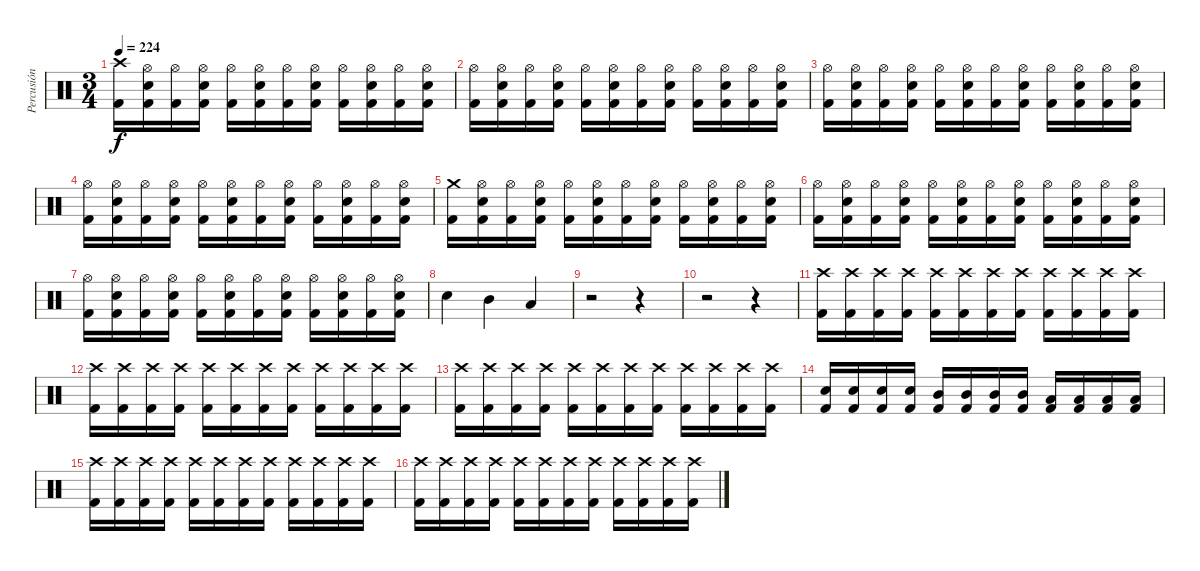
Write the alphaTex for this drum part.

\track ("Percusión" "Percusión") {instrument percussion}
\staff {score}
\articulation defaults
\ts (3 4)
\tempo 224
\clef neutral
\ks c
("Crash high (hit)" "Kick (hit) 2").16{dy f} ("Hi-Hat (open)" "Electric Snare (hit)" "Kick (hit) 2").16 ("Hi-Hat (open)" "Kick (hit) 2").16 ("Hi-Hat (open)" "Electric Snare (hit)" "Kick (hit) 2").16 ("Hi-Hat (open)" "Kick (hit) 2").16 ("Hi-Hat (open)" "Electric Snare (hit)" "Kick (hit) 2").16 ("Hi-Hat (open)" "Kick (hit) 2").16 ("Hi-Hat (open)" "Electric Snare (hit)" "Kick (hit) 2").16 ("Hi-Hat (open)" "Kick (hit) 2").16 ("Hi-Hat (open)" "Electric Snare (hit)" "Kick (hit) 2").16 ("Hi-Hat (open)" "Kick (hit) 2").16 ("Hi-Hat (open)" "Electric Snare (hit)" "Kick (hit) 2").16 |
("Hi-Hat (open)" "Kick (hit) 2").16 ("Hi-Hat (open)" "Electric Snare (hit)" "Kick (hit) 2").16 ("Hi-Hat (open)" "Kick (hit) 2").16 ("Hi-Hat (open)" "Electric Snare (hit)" "Kick (hit) 2").16 ("Hi-Hat (open)" "Kick (hit) 2").16 ("Hi-Hat (open)" "Electric Snare (hit)" "Kick (hit) 2").16 ("Hi-Hat (open)" "Kick (hit) 2").16 ("Hi-Hat (open)" "Electric Snare (hit)" "Kick (hit) 2").16 ("Hi-Hat (open)" "Kick (hit) 2").16 ("Hi-Hat (open)" "Electric Snare (hit)" "Kick (hit) 2").16 ("Hi-Hat (open)" "Kick (hit) 2").16 ("Hi-Hat (open)" "Electric Snare (hit)" "Kick (hit) 2").16 |
("Hi-Hat (open)" "Kick (hit) 2").16 ("Hi-Hat (open)" "Electric Snare (hit)" "Kick (hit) 2").16 ("Hi-Hat (open)" "Kick (hit) 2").16 ("Hi-Hat (open)" "Electric Snare (hit)" "Kick (hit) 2").16 ("Hi-Hat (open)" "Kick (hit) 2").16 ("Hi-Hat (open)" "Electric Snare (hit)" "Kick (hit) 2").16 ("Hi-Hat (open)" "Kick (hit) 2").16 ("Hi-Hat (open)" "Electric Snare (hit)" "Kick (hit) 2").16 ("Hi-Hat (open)" "Kick (hit) 2").16 ("Hi-Hat (open)" "Electric Snare (hit)" "Kick (hit) 2").16 ("Hi-Hat (open)" "Kick (hit) 2").16 ("Hi-Hat (open)" "Electric Snare (hit)" "Kick (hit) 2").16 |
("Hi-Hat (open)" "Kick (hit) 2").16 ("Hi-Hat (open)" "Electric Snare (hit)" "Kick (hit) 2").16 ("Hi-Hat (open)" "Kick (hit) 2").16 ("Hi-Hat (open)" "Electric Snare (hit)" "Kick (hit) 2").16 ("Hi-Hat (open)" "Kick (hit) 2").16 ("Hi-Hat (open)" "Electric Snare (hit)" "Kick (hit) 2").16 ("Hi-Hat (open)" "Kick (hit) 2").16 ("Hi-Hat (open)" "Electric Snare (hit)" "Kick (hit) 2").16 ("Hi-Hat (open)" "Kick (hit) 2").16 ("Hi-Hat (open)" "Electric Snare (hit)" "Kick (hit) 2").16 ("Hi-Hat (open)" "Kick (hit) 2").16 ("Hi-Hat (open)" "Electric Snare (hit)" "Kick (hit) 2").16 |
("Crash medium (hit)" "Kick (hit) 2").16 ("Hi-Hat (open)" "Electric Snare (hit)" "Kick (hit) 2").16 ("Hi-Hat (open)" "Kick (hit) 2").16 ("Hi-Hat (open)" "Electric Snare (hit)" "Kick (hit) 2").16 ("Hi-Hat (open)" "Kick (hit) 2").16 ("Hi-Hat (open)" "Electric Snare (hit)" "Kick (hit) 2").16 ("Hi-Hat (open)" "Kick (hit) 2").16 ("Hi-Hat (open)" "Electric Snare (hit)" "Kick (hit) 2").16 ("Hi-Hat (open)" "Kick (hit) 2").16 ("Hi-Hat (open)" "Electric Snare (hit)" "Kick (hit) 2").16 ("Hi-Hat (open)" "Kick (hit) 2").16 ("Hi-Hat (open)" "Electric Snare (hit)" "Kick (hit) 2").16 |
("Hi-Hat (open)" "Kick (hit) 2").16 ("Hi-Hat (open)" "Electric Snare (hit)" "Kick (hit) 2").16 ("Hi-Hat (open)" "Kick (hit) 2").16 ("Hi-Hat (open)" "Electric Snare (hit)" "Kick (hit) 2").16 ("Hi-Hat (open)" "Kick (hit) 2").16 ("Hi-Hat (open)" "Electric Snare (hit)" "Kick (hit) 2").16 ("Hi-Hat (open)" "Kick (hit) 2").16 ("Hi-Hat (open)" "Electric Snare (hit)" "Kick (hit) 2").16 ("Hi-Hat (open)" "Kick (hit) 2").16 ("Hi-Hat (open)" "Electric Snare (hit)" "Kick (hit) 2").16 ("Hi-Hat (open)" "Kick (hit) 2").16 ("Hi-Hat (open)" "Electric Snare (hit)" "Kick (hit) 2").16 |
("Hi-Hat (open)" "Kick (hit) 2").16 ("Hi-Hat (open)" "Electric Snare (hit)" "Kick (hit) 2").16 ("Hi-Hat (open)" "Kick (hit) 2").16 ("Hi-Hat (open)" "Electric Snare (hit)" "Kick (hit) 2").16 ("Hi-Hat (open)" "Kick (hit) 2").16 ("Hi-Hat (open)" "Electric Snare (hit)" "Kick (hit) 2").16 ("Hi-Hat (open)" "Kick (hit) 2").16 ("Hi-Hat (open)" "Electric Snare (hit)" "Kick (hit) 2").16 ("Hi-Hat (open)" "Kick (hit) 2").16 ("Hi-Hat (open)" "Electric Snare (hit)" "Kick (hit) 2").16 ("Hi-Hat (open)" "Kick (hit) 2").16 ("Hi-Hat (open)" "Electric Snare (hit)" "Kick (hit) 2").16 |
"Electric Snare (hit)".4 "Mid Tom (hit)".4 "Low Tom (hit)".4 |
r.2 r.4 |
r.2 r.4 |
("Crash high (hit)" "Kick (hit) 2").16 ("Crash high (hit)" "Kick (hit) 2").16 ("Crash high (hit)" "Kick (hit) 2").16 ("Crash high (hit)" "Kick (hit) 2").16 ("Crash high (hit)" "Kick (hit) 2").16 ("Crash high (hit)" "Kick (hit) 2").16 ("Crash high (hit)" "Kick (hit) 2").16 ("Crash high (hit)" "Kick (hit) 2").16 ("Crash high (hit)" "Kick (hit) 2").16 ("Crash high (hit)" "Kick (hit) 2").16 ("Crash high (hit)" "Kick (hit) 2").16 ("Crash high (hit)" "Kick (hit) 2").16 |
("Crash high (hit)" "Kick (hit) 2").16 ("Crash high (hit)" "Kick (hit) 2").16 ("Crash high (hit)" "Kick (hit) 2").16 ("Crash high (hit)" "Kick (hit) 2").16 ("Crash high (hit)" "Kick (hit) 2").16 ("Crash high (hit)" "Kick (hit) 2").16 ("Crash high (hit)" "Kick (hit) 2").16 ("Crash high (hit)" "Kick (hit) 2").16 ("Crash high (hit)" "Kick (hit) 2").16 ("Crash high (hit)" "Kick (hit) 2").16 ("Crash high (hit)" "Kick (hit) 2").16 ("Crash high (hit)" "Kick (hit) 2").16 |
("Crash high (hit)" "Kick (hit) 2").16 ("Crash high (hit)" "Kick (hit) 2").16 ("Crash high (hit)" "Kick (hit) 2").16 ("Crash high (hit)" "Kick (hit) 2").16 ("Crash high (hit)" "Kick (hit) 2").16 ("Crash high (hit)" "Kick (hit) 2").16 ("Crash high (hit)" "Kick (hit) 2").16 ("Crash high (hit)" "Kick (hit) 2").16 ("Crash high (hit)" "Kick (hit) 2").16 ("Crash high (hit)" "Kick (hit) 2").16 ("Crash high (hit)" "Kick (hit) 2").16 ("Crash high (hit)" "Kick (hit) 2").16 |
("Electric Snare (hit)" "Kick (hit) 2").16 ("Electric Snare (hit)" "Kick (hit) 2").16 ("Electric Snare (hit)" "Kick (hit) 2").16 ("Electric Snare (hit)" "Kick (hit) 2").16 ("Mid Tom (hit)" "Kick (hit) 2").16 ("Mid Tom (hit)" "Kick (hit) 2").16 ("Mid Tom (hit)" "Kick (hit) 2").16 ("Mid Tom (hit)" "Kick (hit) 2").16 ("Low Tom (hit)" "Kick (hit) 2").16 ("Low Tom (hit)" "Kick (hit) 2").16 ("Low Tom (hit)" "Kick (hit) 2").16 ("Low Tom (hit)" "Kick (hit) 2").16 |
("Crash high (hit)" "Kick (hit) 2").16 ("Crash high (hit)" "Kick (hit) 2").16 ("Crash high (hit)" "Kick (hit) 2").16 ("Crash high (hit)" "Kick (hit) 2").16 ("Crash high (hit)" "Kick (hit) 2").16 ("Crash high (hit)" "Kick (hit) 2").16 ("Crash high (hit)" "Kick (hit) 2").16 ("Crash high (hit)" "Kick (hit) 2").16 ("Crash high (hit)" "Kick (hit) 2").16 ("Crash high (hit)" "Kick (hit) 2").16 ("Crash high (hit)" "Kick (hit) 2").16 ("Crash high (hit)" "Kick (hit) 2").16 |
("Crash high (hit)" "Kick (hit) 2").16 ("Crash high (hit)" "Kick (hit) 2").16 ("Crash high (hit)" "Kick (hit) 2").16 ("Crash high (hit)" "Kick (hit) 2").16 ("Crash high (hit)" "Kick (hit) 2").16 ("Crash high (hit)" "Kick (hit) 2").16 ("Crash high (hit)" "Kick (hit) 2").16 ("Crash high (hit)" "Kick (hit) 2").16 ("Crash high (hit)" "Kick (hit) 2").16 ("Crash high (hit)" "Kick (hit) 2").16 ("Crash high (hit)" "Kick (hit) 2").16 ("Crash high (hit)" "Kick (hit) 2").16
